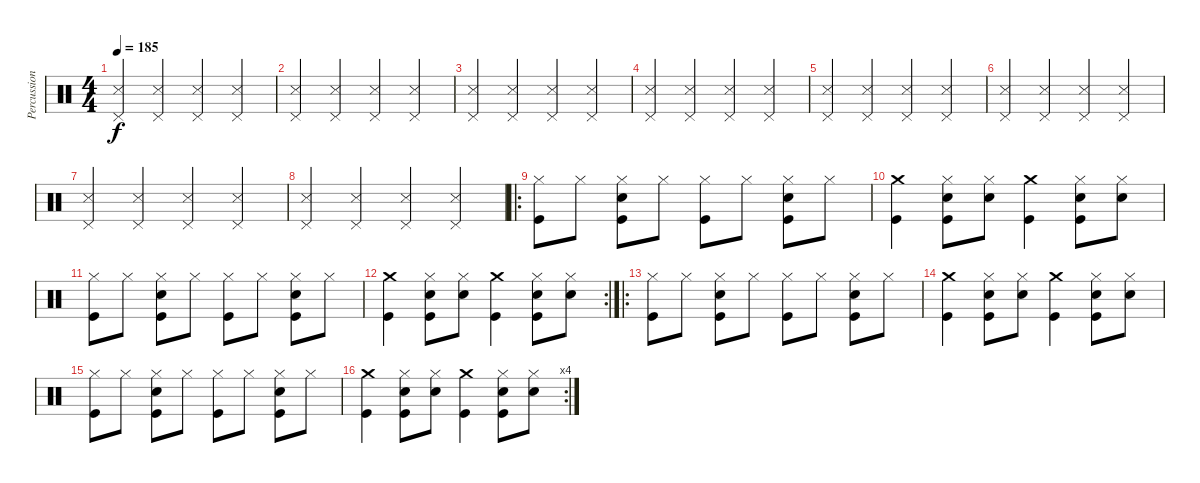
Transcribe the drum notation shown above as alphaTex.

\track ("Percussion" "Percussion") {instrument percussion}
\staff {score}
\articulation defaults
\ts (4 4)
\tempo 185
\clef neutral
\ks c
("Pedal Hi-Hat (hit)" "Metronome (hit)").4{dy f} ("Pedal Hi-Hat (hit)" "Metronome (hit)").4 ("Pedal Hi-Hat (hit)" "Metronome (hit)").4 ("Pedal Hi-Hat (hit)" "Metronome (hit)").4 |
("Pedal Hi-Hat (hit)" "Metronome (hit)").4 ("Pedal Hi-Hat (hit)" "Metronome (hit)").4 ("Pedal Hi-Hat (hit)" "Metronome (hit)").4 ("Pedal Hi-Hat (hit)" "Metronome (hit)").4 |
("Pedal Hi-Hat (hit)" "Metronome (hit)").4 ("Pedal Hi-Hat (hit)" "Metronome (hit)").4 ("Pedal Hi-Hat (hit)" "Metronome (hit)").4 ("Pedal Hi-Hat (hit)" "Metronome (hit)").4 |
("Pedal Hi-Hat (hit)" "Metronome (hit)").4 ("Pedal Hi-Hat (hit)" "Metronome (hit)").4 ("Pedal Hi-Hat (hit)" "Metronome (hit)").4 ("Pedal Hi-Hat (hit)" "Metronome (hit)").4 |
("Pedal Hi-Hat (hit)" "Metronome (hit)").4 ("Pedal Hi-Hat (hit)" "Metronome (hit)").4 ("Pedal Hi-Hat (hit)" "Metronome (hit)").4 ("Pedal Hi-Hat (hit)" "Metronome (hit)").4 |
("Pedal Hi-Hat (hit)" "Metronome (hit)").4 ("Pedal Hi-Hat (hit)" "Metronome (hit)").4 ("Pedal Hi-Hat (hit)" "Metronome (hit)").4 ("Pedal Hi-Hat (hit)" "Metronome (hit)").4 |
("Pedal Hi-Hat (hit)" "Metronome (hit)").4 ("Pedal Hi-Hat (hit)" "Metronome (hit)").4 ("Pedal Hi-Hat (hit)" "Metronome (hit)").4 ("Pedal Hi-Hat (hit)" "Metronome (hit)").4 |
("Pedal Hi-Hat (hit)" "Metronome (hit)").4 ("Pedal Hi-Hat (hit)" "Metronome (hit)").4 ("Pedal Hi-Hat (hit)" "Metronome (hit)").4 ("Pedal Hi-Hat (hit)" "Metronome (hit)").4 |
\ro
("Hi-Hat (closed)" "Kick (hit)").8 "Hi-Hat (closed)".8 ("Hi-Hat (closed)" "Snare (hit) 2" "Kick (hit)").8 "Hi-Hat (closed)".8 ("Hi-Hat (closed)" "Kick (hit)").8 "Hi-Hat (closed)".8 ("Hi-Hat (closed)" "Snare (hit) 2" "Kick (hit)").8 "Hi-Hat (closed)".8 |
("Crash medium (hit)" "Kick (hit)").4 ("Hi-Hat (closed)" "Snare (hit) 2" "Kick (hit)").8 ("Hi-Hat (closed)" "Snare (hit) 2").8 ("Crash medium (hit)" "Kick (hit)").4 ("Hi-Hat (closed)" "Snare (hit) 2" "Kick (hit)").8 ("Hi-Hat (closed)" "Snare (hit) 2").8 |
("Hi-Hat (closed)" "Kick (hit)").8 "Hi-Hat (closed)".8 ("Hi-Hat (closed)" "Snare (hit) 2" "Kick (hit)").8 "Hi-Hat (closed)".8 ("Hi-Hat (closed)" "Kick (hit)").8 "Hi-Hat (closed)".8 ("Hi-Hat (closed)" "Snare (hit) 2" "Kick (hit)").8 "Hi-Hat (closed)".8 |
\rc 2
("Crash medium (hit)" "Kick (hit)").4 ("Hi-Hat (closed)" "Snare (hit) 2" "Kick (hit)").8 ("Hi-Hat (closed)" "Snare (hit) 2").8 ("Crash medium (hit)" "Kick (hit)").4 ("Hi-Hat (closed)" "Snare (hit) 2" "Kick (hit)").8 ("Hi-Hat (closed)" "Snare (hit) 2").8 |
\ro
("Hi-Hat (closed)" "Kick (hit)").8 "Hi-Hat (closed)".8 ("Hi-Hat (closed)" "Snare (hit) 2" "Kick (hit)").8 "Hi-Hat (closed)".8 ("Hi-Hat (closed)" "Kick (hit)").8 "Hi-Hat (closed)".8 ("Hi-Hat (closed)" "Snare (hit) 2" "Kick (hit)").8 "Hi-Hat (closed)".8 |
("Crash medium (hit)" "Kick (hit)").4 ("Hi-Hat (closed)" "Snare (hit) 2" "Kick (hit)").8 ("Hi-Hat (closed)" "Snare (hit) 2").8 ("Crash medium (hit)" "Kick (hit)").4 ("Hi-Hat (closed)" "Snare (hit) 2" "Kick (hit)").8 ("Hi-Hat (closed)" "Snare (hit) 2").8 |
("Hi-Hat (closed)" "Kick (hit)").8 "Hi-Hat (closed)".8 ("Hi-Hat (closed)" "Snare (hit) 2" "Kick (hit)").8 "Hi-Hat (closed)".8 ("Hi-Hat (closed)" "Kick (hit)").8 "Hi-Hat (closed)".8 ("Hi-Hat (closed)" "Snare (hit) 2" "Kick (hit)").8 "Hi-Hat (closed)".8 |
\rc 4
("Crash medium (hit)" "Kick (hit)").4 ("Hi-Hat (closed)" "Snare (hit) 2" "Kick (hit)").8 ("Hi-Hat (closed)" "Snare (hit) 2").8 ("Crash medium (hit)" "Kick (hit)").4 ("Hi-Hat (closed)" "Snare (hit) 2" "Kick (hit)").8 ("Hi-Hat (closed)" "Snare (hit) 2").8
